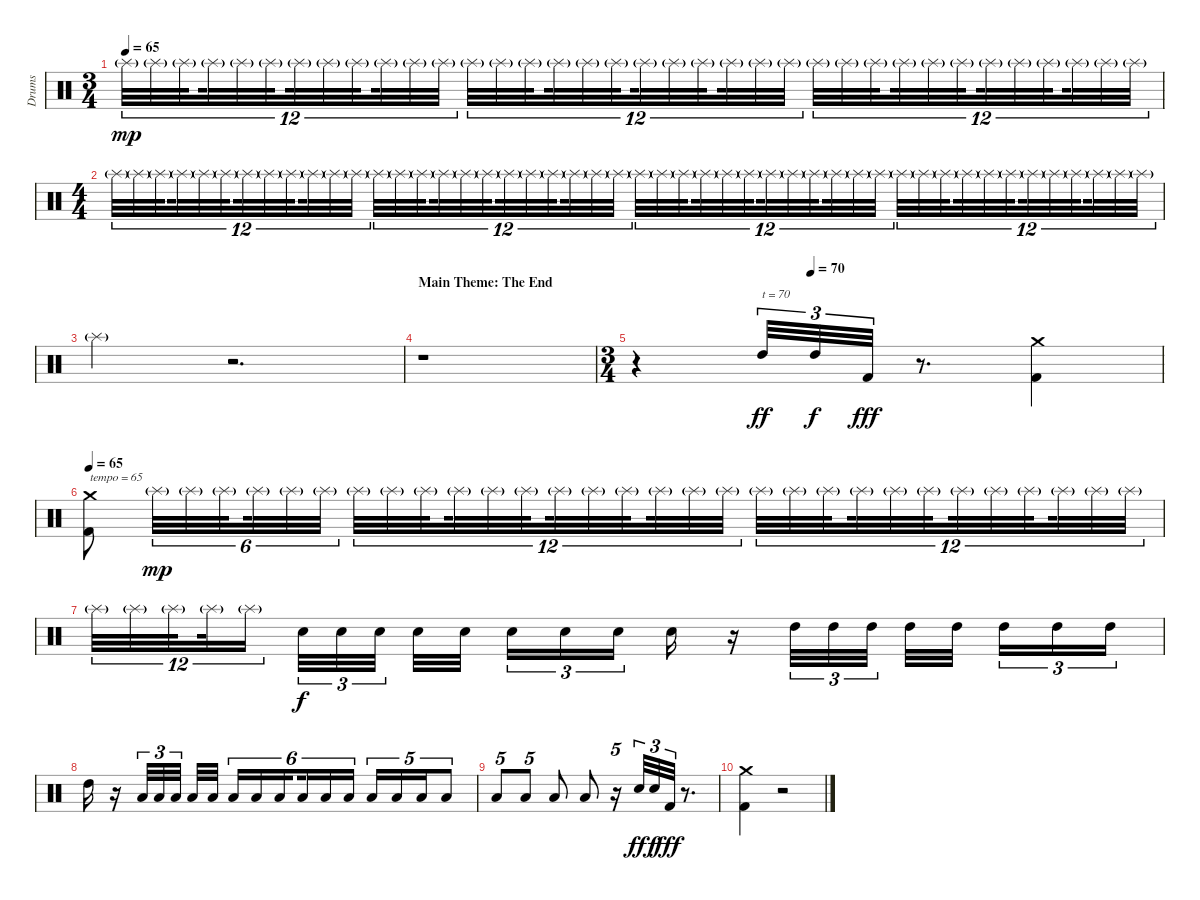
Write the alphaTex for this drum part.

\track ("Drums" "Drums") {instrument percussion}
\staff {score}
\articulation defaults
\ts (3 4)
\tempo 65
\clef neutral
\ks c "Splash (hit)"{g}.32{tu (12 8) dy mp} "Splash (hit)"{g}.32{tu (12 8)} "Splash (hit)"{g}.32{tu (12 8) beam splitsecondary} "Splash (hit)"{g}.32{tu (12 8)} "Splash (hit)"{g}.32{tu (12 8)} "Splash (hit)"{g}.32{tu (12 8) beam splitsecondary} "Splash (hit)"{g}.32{tu (12 8)} "Splash (hit)"{g}.32{tu (12 8)} "Splash (hit)"{g}.32{tu (12 8) beam splitsecondary} "Splash (hit)"{g}.32{tu (12 8)} "Splash (hit)"{g}.32{tu (12 8)} "Splash (hit)"{g}.32{tu (12 8)} "Splash (hit)"{g}.32{tu (12 8)} "Splash (hit)"{g}.32{tu (12 8)} "Splash (hit)"{g}.32{tu (12 8) beam splitsecondary} "Splash (hit)"{g}.32{tu (12 8)} "Splash (hit)"{g}.32{tu (12 8)} "Splash (hit)"{g}.32{tu (12 8) beam splitsecondary} "Splash (hit)"{g}.32{tu (12 8)} "Splash (hit)"{g}.32{tu (12 8)} "Splash (hit)"{g}.32{tu (12 8) beam splitsecondary} "Splash (hit)"{g}.32{tu (12 8)} "Splash (hit)"{g}.32{tu (12 8)} "Splash (hit)"{g}.32{tu (12 8)} "Splash (hit)"{g}.32{tu (12 8)} "Splash (hit)"{g}.32{tu (12 8)} "Splash (hit)"{g}.32{tu (12 8) beam splitsecondary} "Splash (hit)"{g}.32{tu (12 8)} "Splash (hit)"{g}.32{tu (12 8)} "Splash (hit)"{g}.32{tu (12 8) beam splitsecondary} "Splash (hit)"{g}.32{tu (12 8)} "Splash (hit)"{g}.32{tu (12 8)} "Splash (hit)"{g}.32{tu (12 8) beam splitsecondary} "Splash (hit)"{g}.32{tu (12 8)} "Splash (hit)"{g}.32{tu (12 8)} "Splash (hit)"{g}.32{tu (12 8)}
|
\ts (4 4)
"Splash (hit)"{g}.32{tu (12 8)} "Splash (hit)"{g}.32{tu (12 8)} "Splash (hit)"{g}.32{tu (12 8) beam splitsecondary} "Splash (hit)"{g}.32{tu (12 8)} "Splash (hit)"{g}.32{tu (12 8)} "Splash (hit)"{g}.32{tu (12 8) beam splitsecondary} "Splash (hit)"{g}.32{tu (12 8)} "Splash (hit)"{g}.32{tu (12 8)} "Splash (hit)"{g}.32{tu (12 8) beam splitsecondary} "Splash (hit)"{g}.32{tu (12 8)} "Splash (hit)"{g}.32{tu (12 8)} "Splash (hit)"{g}.32{tu (12 8)} "Splash (hit)"{g}.32{tu (12 8)} "Splash (hit)"{g}.32{tu (12 8)} "Splash (hit)"{g}.32{tu (12 8) beam splitsecondary} "Splash (hit)"{g}.32{tu (12 8)} "Splash (hit)"{g}.32{tu (12 8)} "Splash (hit)"{g}.32{tu (12 8) beam splitsecondary} "Splash (hit)"{g}.32{tu (12 8)} "Splash (hit)"{g}.32{tu (12 8)} "Splash (hit)"{g}.32{tu (12 8) beam splitsecondary} "Splash (hit)"{g}.32{tu (12 8)} "Splash (hit)"{g}.32{tu (12 8)} "Splash (hit)"{g}.32{tu (12 8)} "Splash (hit)"{g}.32{tu (12 8)} "Splash (hit)"{g}.32{tu (12 8)} "Splash (hit)"{g}.32{tu (12 8) beam splitsecondary} "Splash (hit)"{g}.32{tu (12 8)} "Splash (hit)"{g}.32{tu (12 8)} "Splash (hit)"{g}.32{tu (12 8) beam splitsecondary} "Splash (hit)"{g}.32{tu (12 8)} "Splash (hit)"{g}.32{tu (12 8)} "Splash (hit)"{g}.32{tu (12 8) beam splitsecondary} "Splash (hit)"{g}.32{tu (12 8)} "Splash (hit)"{g}.32{tu (12 8)} "Splash (hit)"{g}.32{tu (12 8)} "Splash (hit)"{g}.32{tu (12 8)} "Splash (hit)"{g}.32{tu (12 8)} "Splash (hit)"{g}.32{tu (12 8) beam splitsecondary} "Splash (hit)"{g}.32{tu (12 8)} "Splash (hit)"{g}.32{tu (12 8)} "Splash (hit)"{g}.32{tu (12 8) beam splitsecondary} "Splash (hit)"{g}.32{tu (12 8)} "Splash (hit)"{g}.32{tu (12 8)} "Splash (hit)"{g}.32{tu (12 8) beam splitsecondary} "Splash (hit)"{g}.32{tu (12 8)} "Splash (hit)"{g}.32{tu (12 8)} "Splash (hit)"{g}.32{tu (12 8)} |
"Splash (hit)"{g}.4 r.2{d} |
\section ("" "Main Theme: The End")
r.1 |
\ts (3 4)
\tempo (70 0.3333333333333333)
r.4 "High Tom (hit)".32{tu (3 2) txt "t = 70" dy ff} "High Tom (hit)".32{tu (3 2) dy f} "Kick (hit) 2".32{tu (3 2) dy fff} r.8{d} ("Crash medium (hit)" "Kick (hit) 2").4 |
\tempo 65
("Crash medium (hit)" "Kick (hit) 2").8{txt "tempo = 65"} "Splash (hit)"{g}.32{tu (6 4) dy mp} "Splash (hit)"{g}.32{tu (6 4)} "Splash (hit)"{g}.32{tu (6 4) beam splitsecondary} "Splash (hit)"{g}.32{tu (6 4)} "Splash (hit)"{g}.32{tu (6 4)} "Splash (hit)"{g}.32{tu (6 4)} "Splash (hit)"{g}.32{tu (12 8)} "Splash (hit)"{g}.32{tu (12 8)} "Splash (hit)"{g}.32{tu (12 8) beam splitsecondary} "Splash (hit)"{g}.32{tu (12 8)} "Splash (hit)"{g}.32{tu (12 8)} "Splash (hit)"{g}.32{tu (12 8) beam splitsecondary} "Splash (hit)"{g}.32{tu (12 8)} "Splash (hit)"{g}.32{tu (12 8)} "Splash (hit)"{g}.32{tu (12 8) beam splitsecondary} "Splash (hit)"{g}.32{tu (12 8)} "Splash (hit)"{g}.32{tu (12 8)} "Splash (hit)"{g}.32{tu (12 8)} "Splash (hit)"{g}.32{tu (12 8)} "Splash (hit)"{g}.32{tu (12 8)} "Splash (hit)"{g}.32{tu (12 8) beam splitsecondary} "Splash (hit)"{g}.32{tu (12 8)} "Splash (hit)"{g}.32{tu (12 8)} "Splash (hit)"{g}.32{tu (12 8) beam splitsecondary} "Splash (hit)"{g}.32{tu (12 8)} "Splash (hit)"{g}.32{tu (12 8)} "Splash (hit)"{g}.32{tu (12 8) beam splitsecondary} "Splash (hit)"{g}.32{tu (12 8)} "Splash (hit)"{g}.32{tu (12 8)} "Splash (hit)"{g}.32{tu (12 8)} |
"Splash (hit)"{g}.32{tu (12 8)} "Splash (hit)"{g}.32{tu (12 8)} "Splash (hit)"{g}.32{tu (12 8) beam splitsecondary} "Splash (hit)"{g}.32{tu (12 8)} "Splash (hit)"{g}.16{tu (12 8) beam splitsecondary} "Snare (hit) 2".32{tu (3 2) dy f} "Snare (hit) 2".32{tu (3 2)} "Snare (hit) 2".32{tu (3 2) beam splitsecondary} "Snare (hit) 2".32 "Snare (hit) 2".32 "Snare (hit) 2".16{tu (3 2)} "Snare (hit) 2".16{tu (3 2)} "Snare (hit) 2".16{tu (3 2) beam splitsecondary} "Snare (hit) 2".16 r.16 "High Tom (hit)".32{tu (3 2)} "High Tom (hit)".32{tu (3 2)} "High Tom (hit)".32{tu (3 2) beam splitsecondary} "High Tom (hit)".32 "High Tom (hit)".32{beam splitsecondary} "High Tom (hit)".16{tu (3 2)} "High Tom (hit)".16{tu (3 2)} "High Tom (hit)".16{tu (3 2)} |
"High Tom (hit)".16 r.16 "Low Tom (hit)".32{tu (3 2)} "Low Tom (hit)".32{tu (3 2)} "Low Tom (hit)".32{tu (3 2) beam splitsecondary} "Low Tom (hit)".32 "Low Tom (hit)".32 "Low Tom (hit)".16{tu (6 4)} "Low Tom (hit)".16{tu (6 4)} "Low Tom (hit)".16{tu (6 4) beam splitsecondary} "Low Tom (hit)".16{tu (6 4)} "Low Tom (hit)".16{tu (6 4)} "Low Tom (hit)".16{tu (6 4)} "Low Tom (hit)".16{tu (5 4)} "Low Tom (hit)".16{tu (5 4)} "Low Tom (hit)".16{tu (5 4)} "Low Tom (hit)".8{tu (5 4)} |
"Low Tom (hit)".8{tu (5 4)} "Low Tom (hit)".8{tu (5 4)} "Low Tom (hit)".8 "Low Tom (hit)".8 r.16{tu (5 4)} "Snare (hit) 2".32{tu (3 2) dy ff} "Snare (hit) 2".32{tu (3 2) dy f} "Kick (hit) 2".32{tu (3 2) dy fff} r.8{d} |
("Crash medium (hit)" "Kick (hit) 2").4 r.2
